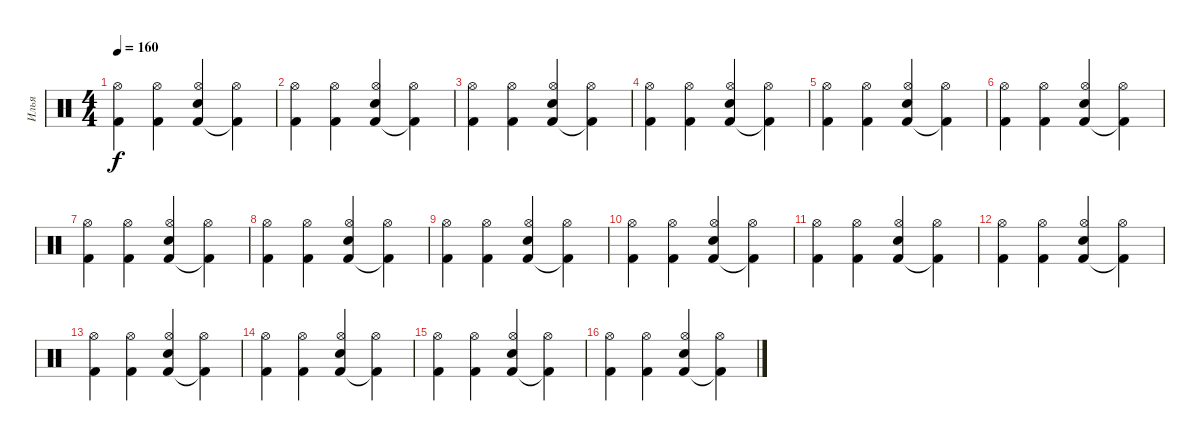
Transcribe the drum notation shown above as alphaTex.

\track ("Илья" "Илья") {instrument percussion}
\staff {score}
\articulation defaults
\ts (4 4)
\tempo 160
\clef neutral
\ks c
("Kick (hit) 2" "Hi-Hat (open)").4{dy f} ("Kick (hit) 2" "Hi-Hat (open)").4 ("Kick (hit) 2" "Electric Snare (hit)" "Hi-Hat (open)").4 ("Kick (hit) 2"{t} "Hi-Hat (open)").4 |
("Kick (hit) 2" "Hi-Hat (open)").4 ("Kick (hit) 2" "Hi-Hat (open)").4 ("Kick (hit) 2" "Electric Snare (hit)" "Hi-Hat (open)").4 ("Kick (hit) 2"{t} "Hi-Hat (open)").4 |
("Kick (hit) 2" "Hi-Hat (open)").4 ("Kick (hit) 2" "Hi-Hat (open)").4 ("Kick (hit) 2" "Electric Snare (hit)" "Hi-Hat (open)").4 ("Kick (hit) 2"{t} "Hi-Hat (open)").4 |
("Kick (hit) 2" "Hi-Hat (open)").4 ("Kick (hit) 2" "Hi-Hat (open)").4 ("Kick (hit) 2" "Electric Snare (hit)" "Hi-Hat (open)").4 ("Kick (hit) 2"{t} "Hi-Hat (open)").4 |
("Kick (hit) 2" "Hi-Hat (open)").4 ("Kick (hit) 2" "Hi-Hat (open)").4 ("Kick (hit) 2" "Electric Snare (hit)" "Hi-Hat (open)").4 ("Kick (hit) 2"{t} "Hi-Hat (open)").4 |
("Kick (hit) 2" "Hi-Hat (open)").4 ("Kick (hit) 2" "Hi-Hat (open)").4 ("Kick (hit) 2" "Electric Snare (hit)" "Hi-Hat (open)").4 ("Kick (hit) 2"{t} "Hi-Hat (open)").4 |
("Kick (hit) 2" "Hi-Hat (open)").4 ("Kick (hit) 2" "Hi-Hat (open)").4 ("Kick (hit) 2" "Electric Snare (hit)" "Hi-Hat (open)").4 ("Kick (hit) 2"{t} "Hi-Hat (open)").4 |
("Kick (hit) 2" "Hi-Hat (open)").4 ("Kick (hit) 2" "Hi-Hat (open)").4 ("Kick (hit) 2" "Electric Snare (hit)" "Hi-Hat (open)").4 ("Kick (hit) 2"{t} "Hi-Hat (open)").4 |
("Kick (hit) 2" "Hi-Hat (open)").4 ("Kick (hit) 2" "Hi-Hat (open)").4 ("Kick (hit) 2" "Electric Snare (hit)" "Hi-Hat (open)").4 ("Kick (hit) 2"{t} "Hi-Hat (open)").4 |
("Kick (hit) 2" "Hi-Hat (open)").4 ("Kick (hit) 2" "Hi-Hat (open)").4 ("Kick (hit) 2" "Electric Snare (hit)" "Hi-Hat (open)").4 ("Kick (hit) 2"{t} "Hi-Hat (open)").4 |
("Kick (hit) 2" "Hi-Hat (open)").4 ("Kick (hit) 2" "Hi-Hat (open)").4 ("Kick (hit) 2" "Electric Snare (hit)" "Hi-Hat (open)").4 ("Kick (hit) 2"{t} "Hi-Hat (open)").4 |
("Kick (hit) 2" "Hi-Hat (open)").4 ("Kick (hit) 2" "Hi-Hat (open)").4 ("Kick (hit) 2" "Electric Snare (hit)" "Hi-Hat (open)").4 ("Kick (hit) 2"{t} "Hi-Hat (open)").4 |
("Kick (hit) 2" "Hi-Hat (open)").4 ("Kick (hit) 2" "Hi-Hat (open)").4 ("Kick (hit) 2" "Electric Snare (hit)" "Hi-Hat (open)").4 ("Kick (hit) 2"{t} "Hi-Hat (open)").4 |
("Kick (hit) 2" "Hi-Hat (open)").4 ("Kick (hit) 2" "Hi-Hat (open)").4 ("Kick (hit) 2" "Electric Snare (hit)" "Hi-Hat (open)").4 ("Kick (hit) 2"{t} "Hi-Hat (open)").4 |
("Kick (hit) 2" "Hi-Hat (open)").4 ("Kick (hit) 2" "Hi-Hat (open)").4 ("Kick (hit) 2" "Electric Snare (hit)" "Hi-Hat (open)").4 ("Kick (hit) 2"{t} "Hi-Hat (open)").4 |
("Kick (hit) 2" "Hi-Hat (open)").4 ("Kick (hit) 2" "Hi-Hat (open)").4 ("Kick (hit) 2" "Electric Snare (hit)" "Hi-Hat (open)").4 ("Kick (hit) 2"{t} "Hi-Hat (open)").4
